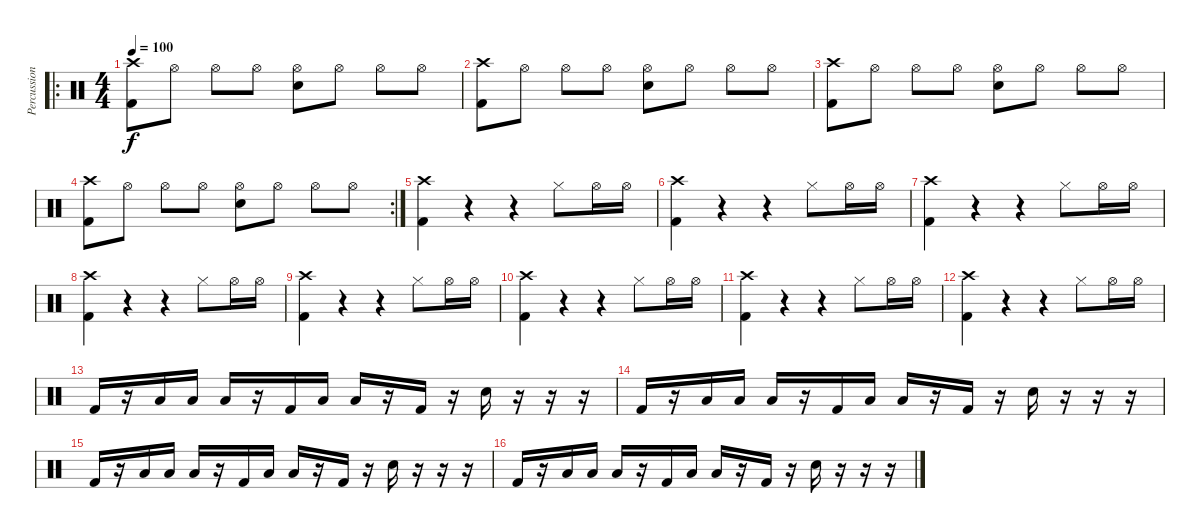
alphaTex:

\track ("Percussion" "Percussion") {instrument percussion}
\staff {score}
\articulation defaults
\ro
\ts (4 4)
\tempo 100
\clef neutral
\ks c
("Crash high (hit)" "Kick (hit) 2").8{dy f} "Hi-Hat (open)".8 "Hi-Hat (open)".8 "Hi-Hat (open)".8 ("Hi-Hat (open)" "Snare (hit) 2").8 "Hi-Hat (open)".8 "Hi-Hat (open)".8 "Hi-Hat (open)".8 |
("Crash high (hit)" "Kick (hit) 2").8 "Hi-Hat (open)".8 "Hi-Hat (open)".8 "Hi-Hat (open)".8 ("Hi-Hat (open)" "Snare (hit) 2").8 "Hi-Hat (open)".8 "Hi-Hat (open)".8 "Hi-Hat (open)".8 |
("Crash high (hit)" "Kick (hit) 2").8 "Hi-Hat (open)".8 "Hi-Hat (open)".8 "Hi-Hat (open)".8 ("Hi-Hat (open)" "Snare (hit) 2").8 "Hi-Hat (open)".8 "Hi-Hat (open)".8 "Hi-Hat (open)".8 |
\rc 2
("Crash high (hit)" "Kick (hit) 2").8 "Hi-Hat (open)".8 "Hi-Hat (open)".8 "Hi-Hat (open)".8 ("Hi-Hat (open)" "Snare (hit) 2").8 "Hi-Hat (open)".8 "Hi-Hat (open)".8 "Hi-Hat (open)".8 |
("Crash high (hit)" "Kick (hit) 2").4 r.4 r.4 "Hi-Hat (closed)".8 "Hi-Hat (open)".16 "Hi-Hat (open)".16 |
("Crash high (hit)" "Kick (hit) 2").4 r.4 r.4 "Hi-Hat (closed)".8 "Hi-Hat (open)".16 "Hi-Hat (open)".16 |
("Crash high (hit)" "Kick (hit) 2").4 r.4 r.4 "Hi-Hat (closed)".8 "Hi-Hat (open)".16 "Hi-Hat (open)".16 |
("Crash high (hit)" "Kick (hit) 2").4 r.4 r.4 "Hi-Hat (closed)".8 "Hi-Hat (open)".16 "Hi-Hat (open)".16 |
("Crash high (hit)" "Kick (hit) 2").4 r.4 r.4 "Hi-Hat (closed)".8 "Hi-Hat (open)".16 "Hi-Hat (open)".16 |
("Crash high (hit)" "Kick (hit) 2").4 r.4 r.4 "Hi-Hat (closed)".8 "Hi-Hat (open)".16 "Hi-Hat (open)".16 |
("Crash high (hit)" "Kick (hit) 2").4 r.4 r.4 "Hi-Hat (closed)".8 "Hi-Hat (open)".16 "Hi-Hat (open)".16 |
("Crash high (hit)" "Kick (hit) 2").4 r.4 r.4 "Hi-Hat (closed)".8 "Hi-Hat (open)".16 "Hi-Hat (open)".16 |
"Kick (hit) 2".16 r.16 "Low Floor Tom (hit)".16 "Low Floor Tom (hit)".16 "Low Floor Tom (hit)".16 r.16 "Kick (hit) 2".16 "Low Floor Tom (hit)".16 "Low Floor Tom (hit)".16 r.16 "Kick (hit) 2".16 r.16 "Snare (hit) 2".16 r.16 r.16 r.16 |
"Kick (hit) 2".16 r.16 "Low Floor Tom (hit)".16 "Low Floor Tom (hit)".16 "Low Floor Tom (hit)".16 r.16 "Kick (hit) 2".16 "Low Floor Tom (hit)".16 "Low Floor Tom (hit)".16 r.16 "Kick (hit) 2".16 r.16 "Snare (hit) 2".16 r.16 r.16 r.16 |
"Kick (hit) 2".16 r.16 "Low Floor Tom (hit)".16 "Low Floor Tom (hit)".16 "Low Floor Tom (hit)".16 r.16 "Kick (hit) 2".16 "Low Floor Tom (hit)".16 "Low Floor Tom (hit)".16 r.16 "Kick (hit) 2".16 r.16 "Snare (hit) 2".16 r.16 r.16 r.16 |
"Kick (hit) 2".16 r.16 "Low Floor Tom (hit)".16 "Low Floor Tom (hit)".16 "Low Floor Tom (hit)".16 r.16 "Kick (hit) 2".16 "Low Floor Tom (hit)".16 "Low Floor Tom (hit)".16 r.16 "Kick (hit) 2".16 r.16 "Snare (hit) 2".16 r.16 r.16 r.16
